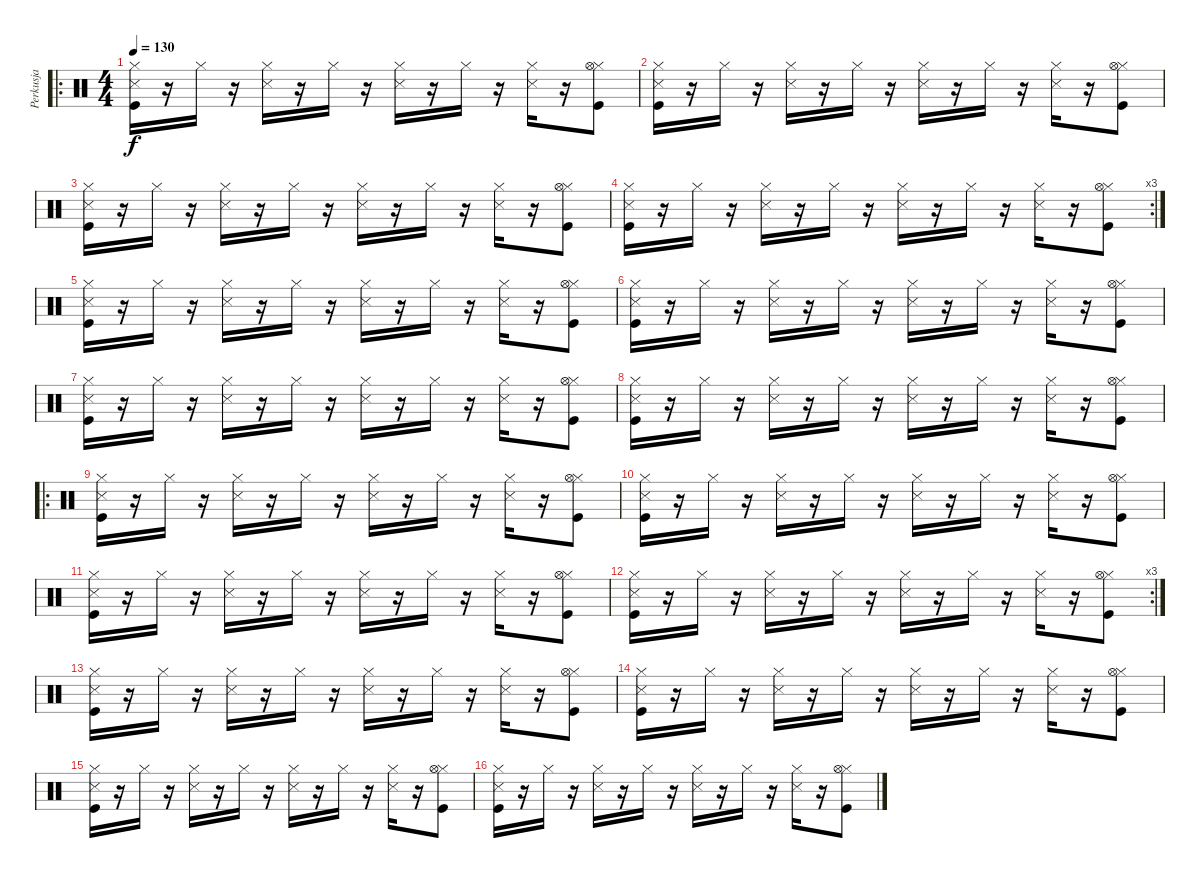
\track ("Perkusja" "Perkusja") {instrument percussion}
\staff {score}
\articulation defaults
\ro
\ts (4 4)
\tempo 130
\clef neutral
\ks c
("Snare (side stick) 3" "Hi-Hat (closed)" "Kick (hit)").16{dy f} r.16 "Hi-Hat (closed)".16 r.16 ("Snare (side stick) 3" "Hi-Hat (closed)").16 r.16 "Hi-Hat (closed)".16 r.16 ("Snare (side stick) 3" "Hi-Hat (closed)").16 r.16 "Hi-Hat (closed)".16 r.16 ("Snare (side stick) 3" "Hi-Hat (closed)").16 r.16 ("Hi-Hat (closed)" "Hi-Hat (open)" "Kick (hit)").8 |
("Snare (side stick) 3" "Hi-Hat (closed)" "Kick (hit)").16 r.16 "Hi-Hat (closed)".16 r.16 ("Snare (side stick) 3" "Hi-Hat (closed)").16 r.16 "Hi-Hat (closed)".16 r.16 ("Snare (side stick) 3" "Hi-Hat (closed)").16 r.16 "Hi-Hat (closed)".16 r.16 ("Snare (side stick) 3" "Hi-Hat (closed)").16 r.16 ("Hi-Hat (closed)" "Hi-Hat (open)" "Kick (hit)").8 |
("Snare (side stick) 3" "Hi-Hat (closed)" "Kick (hit)").16 r.16 "Hi-Hat (closed)".16 r.16 ("Snare (side stick) 3" "Hi-Hat (closed)").16 r.16 "Hi-Hat (closed)".16 r.16 ("Snare (side stick) 3" "Hi-Hat (closed)").16 r.16 "Hi-Hat (closed)".16 r.16 ("Snare (side stick) 3" "Hi-Hat (closed)").16 r.16 ("Hi-Hat (closed)" "Hi-Hat (open)" "Kick (hit)").8 |
\rc 3
("Snare (side stick) 3" "Hi-Hat (closed)" "Kick (hit)").16 r.16 "Hi-Hat (closed)".16 r.16 ("Snare (side stick) 3" "Hi-Hat (closed)").16 r.16 "Hi-Hat (closed)".16 r.16 ("Snare (side stick) 3" "Hi-Hat (closed)").16 r.16 "Hi-Hat (closed)".16 r.16 ("Snare (side stick) 3" "Hi-Hat (closed)").16 r.16 ("Hi-Hat (closed)" "Hi-Hat (open)" "Kick (hit)").8 |
("Snare (side stick) 3" "Hi-Hat (closed)" "Kick (hit)").16 r.16 "Hi-Hat (closed)".16 r.16 ("Snare (side stick) 3" "Hi-Hat (closed)").16 r.16 "Hi-Hat (closed)".16 r.16 ("Snare (side stick) 3" "Hi-Hat (closed)").16 r.16 "Hi-Hat (closed)".16 r.16 ("Snare (side stick) 3" "Hi-Hat (closed)").16 r.16 ("Hi-Hat (closed)" "Hi-Hat (open)" "Kick (hit)").8 |
("Snare (side stick) 3" "Hi-Hat (closed)" "Kick (hit)").16 r.16 "Hi-Hat (closed)".16 r.16 ("Snare (side stick) 3" "Hi-Hat (closed)").16 r.16 "Hi-Hat (closed)".16 r.16 ("Snare (side stick) 3" "Hi-Hat (closed)").16 r.16 "Hi-Hat (closed)".16 r.16 ("Snare (side stick) 3" "Hi-Hat (closed)").16 r.16 ("Hi-Hat (closed)" "Hi-Hat (open)" "Kick (hit)").8 |
("Snare (side stick) 3" "Hi-Hat (closed)" "Kick (hit)").16 r.16 "Hi-Hat (closed)".16 r.16 ("Snare (side stick) 3" "Hi-Hat (closed)").16 r.16 "Hi-Hat (closed)".16 r.16 ("Snare (side stick) 3" "Hi-Hat (closed)").16 r.16 "Hi-Hat (closed)".16 r.16 ("Snare (side stick) 3" "Hi-Hat (closed)").16 r.16 ("Hi-Hat (closed)" "Hi-Hat (open)" "Kick (hit)").8 |
("Snare (side stick) 3" "Hi-Hat (closed)" "Kick (hit)").16 r.16 "Hi-Hat (closed)".16 r.16 ("Snare (side stick) 3" "Hi-Hat (closed)").16 r.16 "Hi-Hat (closed)".16 r.16 ("Snare (side stick) 3" "Hi-Hat (closed)").16 r.16 "Hi-Hat (closed)".16 r.16 ("Snare (side stick) 3" "Hi-Hat (closed)").16 r.16 ("Hi-Hat (closed)" "Hi-Hat (open)" "Kick (hit)").8 |
\ro
("Snare (side stick) 3" "Hi-Hat (closed)" "Kick (hit)").16 r.16 "Hi-Hat (closed)".16 r.16 ("Snare (side stick) 3" "Hi-Hat (closed)").16 r.16 "Hi-Hat (closed)".16 r.16 ("Snare (side stick) 3" "Hi-Hat (closed)").16 r.16 "Hi-Hat (closed)".16 r.16 ("Snare (side stick) 3" "Hi-Hat (closed)").16 r.16 ("Hi-Hat (closed)" "Hi-Hat (open)" "Kick (hit)").8 |
("Snare (side stick) 3" "Hi-Hat (closed)" "Kick (hit)").16 r.16 "Hi-Hat (closed)".16 r.16 ("Snare (side stick) 3" "Hi-Hat (closed)").16 r.16 "Hi-Hat (closed)".16 r.16 ("Snare (side stick) 3" "Hi-Hat (closed)").16 r.16 "Hi-Hat (closed)".16 r.16 ("Snare (side stick) 3" "Hi-Hat (closed)").16 r.16 ("Hi-Hat (closed)" "Hi-Hat (open)" "Kick (hit)").8 |
("Snare (side stick) 3" "Hi-Hat (closed)" "Kick (hit)").16 r.16 "Hi-Hat (closed)".16 r.16 ("Snare (side stick) 3" "Hi-Hat (closed)").16 r.16 "Hi-Hat (closed)".16 r.16 ("Snare (side stick) 3" "Hi-Hat (closed)").16 r.16 "Hi-Hat (closed)".16 r.16 ("Snare (side stick) 3" "Hi-Hat (closed)").16 r.16 ("Hi-Hat (closed)" "Hi-Hat (open)" "Kick (hit)").8 |
\rc 3
("Snare (side stick) 3" "Hi-Hat (closed)" "Kick (hit)").16 r.16 "Hi-Hat (closed)".16 r.16 ("Snare (side stick) 3" "Hi-Hat (closed)").16 r.16 "Hi-Hat (closed)".16 r.16 ("Snare (side stick) 3" "Hi-Hat (closed)").16 r.16 "Hi-Hat (closed)".16 r.16 ("Snare (side stick) 3" "Hi-Hat (closed)").16 r.16 ("Hi-Hat (closed)" "Hi-Hat (open)" "Kick (hit)").8 |
("Snare (side stick) 3" "Hi-Hat (closed)" "Kick (hit)").16 r.16 "Hi-Hat (closed)".16 r.16 ("Snare (side stick) 3" "Hi-Hat (closed)").16 r.16 "Hi-Hat (closed)".16 r.16 ("Snare (side stick) 3" "Hi-Hat (closed)").16 r.16 "Hi-Hat (closed)".16 r.16 ("Snare (side stick) 3" "Hi-Hat (closed)").16 r.16 ("Hi-Hat (closed)" "Hi-Hat (open)" "Kick (hit)").8 |
("Snare (side stick) 3" "Hi-Hat (closed)" "Kick (hit)").16 r.16 "Hi-Hat (closed)".16 r.16 ("Snare (side stick) 3" "Hi-Hat (closed)").16 r.16 "Hi-Hat (closed)".16 r.16 ("Snare (side stick) 3" "Hi-Hat (closed)").16 r.16 "Hi-Hat (closed)".16 r.16 ("Snare (side stick) 3" "Hi-Hat (closed)").16 r.16 ("Hi-Hat (closed)" "Hi-Hat (open)" "Kick (hit)").8 |
("Snare (side stick) 3" "Hi-Hat (closed)" "Kick (hit)").16 r.16 "Hi-Hat (closed)".16 r.16 ("Snare (side stick) 3" "Hi-Hat (closed)").16 r.16 "Hi-Hat (closed)".16 r.16 ("Snare (side stick) 3" "Hi-Hat (closed)").16 r.16 "Hi-Hat (closed)".16 r.16 ("Snare (side stick) 3" "Hi-Hat (closed)").16 r.16 ("Hi-Hat (closed)" "Hi-Hat (open)" "Kick (hit)").8 |
("Snare (side stick) 3" "Hi-Hat (closed)" "Kick (hit)").16 r.16 "Hi-Hat (closed)".16 r.16 ("Snare (side stick) 3" "Hi-Hat (closed)").16 r.16 "Hi-Hat (closed)".16 r.16 ("Snare (side stick) 3" "Hi-Hat (closed)").16 r.16 "Hi-Hat (closed)".16 r.16 ("Snare (side stick) 3" "Hi-Hat (closed)").16 r.16 ("Hi-Hat (closed)" "Hi-Hat (open)" "Kick (hit)").8
